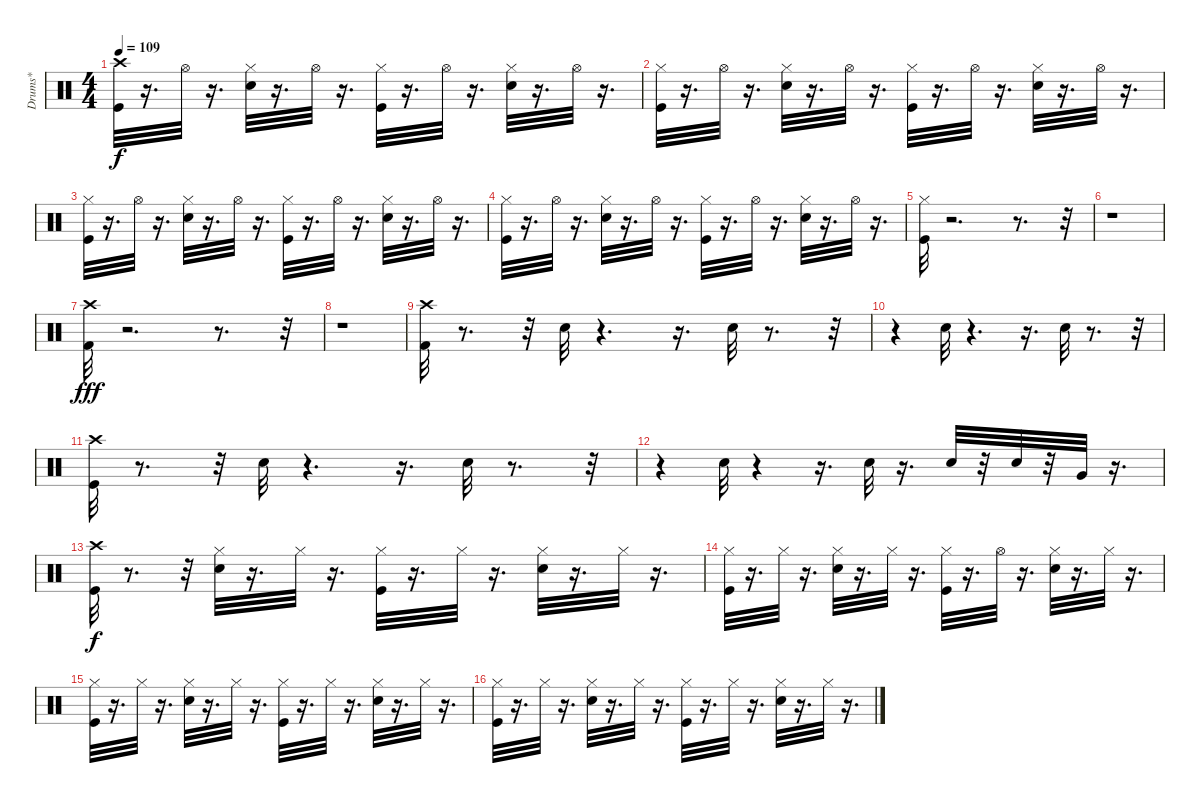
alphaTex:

\track ("Drums*" "Drums*") {instrument percussion}
\staff {score}
\articulation defaults
\ts (4 4)
\tempo 109
\clef neutral
\ks c
("Crash high (hit)" "Kick (hit)").32{dy f} r.16{d} "Hi-Hat (open)".32 r.16{d} ("Hi-Hat (closed)" "Snare (hit) 2").32 r.16{d} "Hi-Hat (open)".32 r.16{d} ("Hi-Hat (closed)" "Kick (hit)").32 r.16{d} "Hi-Hat (open)".32 r.16{d} ("Hi-Hat (closed)" "Snare (hit) 2").32 r.16{d} "Hi-Hat (open)".32 r.16{d} |
("Hi-Hat (closed)" "Kick (hit)").32 r.16{d} "Hi-Hat (open)".32 r.16{d} ("Hi-Hat (closed)" "Snare (hit) 2").32 r.16{d} "Hi-Hat (open)".32 r.16{d} ("Hi-Hat (closed)" "Kick (hit)").32 r.16{d} "Hi-Hat (open)".32 r.16{d} ("Hi-Hat (closed)" "Snare (hit) 2").32 r.16{d} "Hi-Hat (open)".32 r.16{d} |
("Hi-Hat (closed)" "Kick (hit)").32 r.16{d} "Hi-Hat (open)".32 r.16{d} ("Hi-Hat (closed)" "Snare (hit) 2").32 r.16{d} "Hi-Hat (open)".32 r.16{d} ("Hi-Hat (closed)" "Kick (hit)").32 r.16{d} "Hi-Hat (open)".32 r.16{d} ("Hi-Hat (closed)" "Snare (hit) 2").32 r.16{d} "Hi-Hat (open)".32 r.16{d} |
("Hi-Hat (closed)" "Kick (hit)").32 r.16{d} "Hi-Hat (open)".32 r.16{d} ("Hi-Hat (closed)" "Snare (hit) 2").32 r.16{d} "Hi-Hat (open)".32 r.16{d} ("Hi-Hat (closed)" "Kick (hit)").32 r.16{d} "Hi-Hat (open)".32 r.16{d} ("Hi-Hat (closed)" "Snare (hit) 2").32 r.16{d} "Hi-Hat (open)".32 r.16{d} |
("Hi-Hat (closed)" "Kick (hit)").32 r.2{d} r.8{d} r.32 |
r.1 |
("Crash high (hit)" "Kick (hit) 2").32{dy fff} r.2{d} r.8{d} r.32 |
r.1 |
("Crash high (hit)" "Kick (hit) 2").32 r.8{d} r.32 "Snare (hit) 2".32 r.4{d} r.16{d} "Snare (hit) 2".32 r.8{d} r.32 |
r.4 "Snare (hit) 2".32 r.4{d} r.16{d} "Snare (hit) 2".32 r.8{d} r.32 |
("Crash high (hit)" "Kick (hit)").32 r.8{d} r.32 "Snare (hit) 2".32 r.4{d} r.16{d} "Snare (hit) 2".32 r.8{d} r.32 |
r.4 "Snare (hit) 2".32 r.4 r.16{d} "Snare (hit) 2".32 r.16{d} "Snare (hit) 2".32 r.32 "Snare (hit) 2".32 r.32 "Very Low Tom (hit)".32 r.16{d} |
("Crash high (hit)" "Kick (hit)").32{dy f} r.8{d} r.32 ("Hi-Hat (closed)" "Snare (hit) 2").32 r.16{d} "Hi-Hat (closed)".32 r.16{d} ("Hi-Hat (closed)" "Kick (hit)").32 r.16{d} "Hi-Hat (closed)".32 r.16{d} ("Hi-Hat (closed)" "Snare (hit) 2").32 r.16{d} "Hi-Hat (closed)".32 r.16{d} |
("Kick (hit)" "Hi-Hat (closed)").32 r.16{d} "Hi-Hat (closed)".32 r.16{d} ("Snare (hit) 2" "Hi-Hat (closed)").32 r.16{d} "Hi-Hat (closed)".32 r.16{d} ("Kick (hit)" "Hi-Hat (closed)").32 r.16{d} "Hi-Hat (open)".32 r.16{d} ("Snare (hit) 2" "Hi-Hat (closed)").32 r.16{d} "Hi-Hat (closed)".32 r.16{d} |
("Kick (hit)" "Hi-Hat (closed)").32 r.16{d} "Hi-Hat (closed)".32 r.16{d} ("Snare (hit) 2" "Hi-Hat (closed)").32 r.16{d} "Hi-Hat (closed)".32 r.16{d} ("Kick (hit)" "Hi-Hat (closed)").32 r.16{d} "Hi-Hat (closed)".32 r.16{d} ("Snare (hit) 2" "Hi-Hat (closed)").32 r.16{d} "Hi-Hat (closed)".32 r.16{d} |
("Kick (hit)" "Hi-Hat (closed)").32 r.16{d} "Hi-Hat (closed)".32 r.16{d} ("Snare (hit) 2" "Hi-Hat (closed)").32 r.16{d} "Hi-Hat (closed)".32 r.16{d} ("Kick (hit)" "Hi-Hat (closed)").32 r.16{d} "Hi-Hat (closed)".32 r.16{d} ("Snare (hit) 2" "Hi-Hat (closed)").32 r.16{d} "Hi-Hat (closed)".32 r.16{d}
